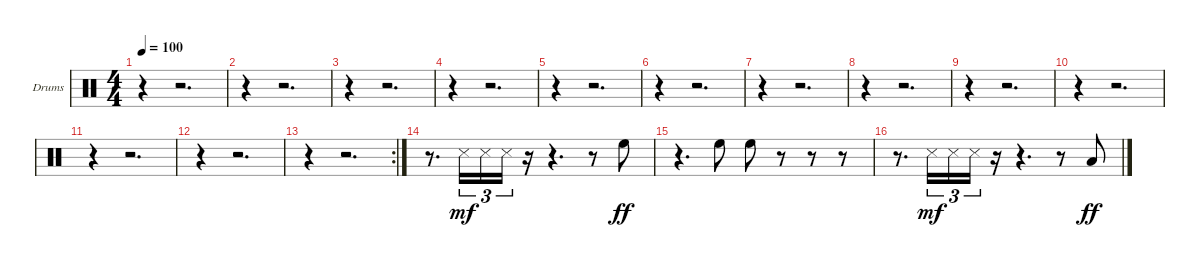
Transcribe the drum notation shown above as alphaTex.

\bracketExtendMode groupsimilarinstruments
\firstSystemTrackNameOrientation horizontal
\otherSystemsTrackNameOrientation horizontal
\track ("Drumkit" "Drums") {instrument percussion}
\staff {score}
\articulation defaults
\ts (4 4)
\tempo 100
\clef neutral
\ks c
r.4{dy ff} r.2{d} |
r.4 r.2{d} |
r.4 r.2{d} |
r.4 r.2{d} |
r.4 r.2{d} |
r.4 r.2{d} |
r.4 r.2{d} |
r.4 r.2{d} |
r.4 r.2{d} |
r.4 r.2{d} |
r.4 r.2{d} |
r.4 r.2{d} |
\rc 2
r.4 r.2{d} |
r.8{d} "Snare (side stick) 3".16{tu (3 2) dy mf} "Snare (side stick) 3".16{tu (3 2)} "Snare (side stick) 3".16{tu (3 2)} r.16 r.4{d} r.8 "High Floor Tom (hit)".8{dy ff} |
r.4{d} "High Floor Tom (hit)".8 "High Floor Tom (hit)".8 r.8 r.8 r.8 |
r.8{d} "Snare (side stick) 3".16{tu (3 2) dy mf} "Snare (side stick) 3".16{tu (3 2)} "Snare (side stick) 3".16{tu (3 2)} r.16 r.4{d} r.8 "Low Tom (hit)".8{dy ff}
